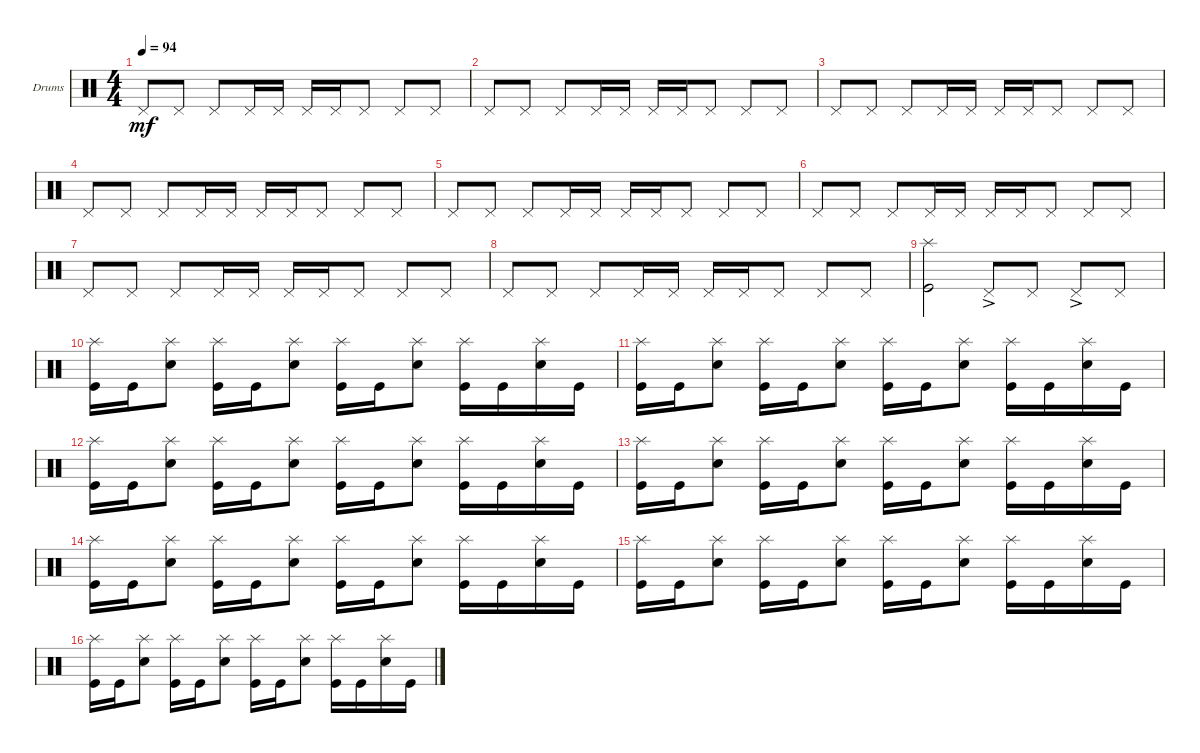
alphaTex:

\defaultSystemsLayout 4
\bracketExtendMode groupsimilarinstruments
\firstSystemTrackNameOrientation horizontal
\otherSystemsTrackNameOrientation horizontal
\track ("Тоха" "Drums") {instrument percussion}
\staff {score}
\articulation defaults
\ts (4 4)
\tempo 94
\clef neutral
\scale
0.474178
\ks c "Pedal Hi-Hat (hit)".8{dy mf} "Pedal Hi-Hat (hit)".8 "Pedal Hi-Hat (hit)".8 "Pedal Hi-Hat (hit)".16 "Pedal Hi-Hat (hit)".16 "Pedal Hi-Hat (hit)".16 "Pedal Hi-Hat (hit)".16 "Pedal Hi-Hat (hit)".8 "Pedal Hi-Hat (hit)".8 "Pedal Hi-Hat (hit)".8
|
\scale
0.262911 "Pedal Hi-Hat (hit)".8 "Pedal Hi-Hat (hit)".8 "Pedal Hi-Hat (hit)".8 "Pedal Hi-Hat (hit)".16 "Pedal Hi-Hat (hit)".16 "Pedal Hi-Hat (hit)".16 "Pedal Hi-Hat (hit)".16 "Pedal Hi-Hat (hit)".8 "Pedal Hi-Hat (hit)".8 "Pedal Hi-Hat (hit)".8 |
\scale
0.262911 "Pedal Hi-Hat (hit)".8 "Pedal Hi-Hat (hit)".8 "Pedal Hi-Hat (hit)".8 "Pedal Hi-Hat (hit)".16 "Pedal Hi-Hat (hit)".16 "Pedal Hi-Hat (hit)".16 "Pedal Hi-Hat (hit)".16 "Pedal Hi-Hat (hit)".8 "Pedal Hi-Hat (hit)".8 "Pedal Hi-Hat (hit)".8 |
\scale
0.333333 "Pedal Hi-Hat (hit)".8 "Pedal Hi-Hat (hit)".8 "Pedal Hi-Hat (hit)".8 "Pedal Hi-Hat (hit)".16 "Pedal Hi-Hat (hit)".16 "Pedal Hi-Hat (hit)".16 "Pedal Hi-Hat (hit)".16 "Pedal Hi-Hat (hit)".8 "Pedal Hi-Hat (hit)".8 "Pedal Hi-Hat (hit)".8 |
\scale
0.333333 "Pedal Hi-Hat (hit)".8 "Pedal Hi-Hat (hit)".8 "Pedal Hi-Hat (hit)".8 "Pedal Hi-Hat (hit)".16 "Pedal Hi-Hat (hit)".16 "Pedal Hi-Hat (hit)".16 "Pedal Hi-Hat (hit)".16 "Pedal Hi-Hat (hit)".8 "Pedal Hi-Hat (hit)".8 "Pedal Hi-Hat (hit)".8 |
\scale
0.333333 "Pedal Hi-Hat (hit)".8 "Pedal Hi-Hat (hit)".8 "Pedal Hi-Hat (hit)".8 "Pedal Hi-Hat (hit)".16 "Pedal Hi-Hat (hit)".16 "Pedal Hi-Hat (hit)".16 "Pedal Hi-Hat (hit)".16 "Pedal Hi-Hat (hit)".8 "Pedal Hi-Hat (hit)".8 "Pedal Hi-Hat (hit)".8 |
\scale
0.333333 "Pedal Hi-Hat (hit)".8 "Pedal Hi-Hat (hit)".8 "Pedal Hi-Hat (hit)".8 "Pedal Hi-Hat (hit)".16 "Pedal Hi-Hat (hit)".16 "Pedal Hi-Hat (hit)".16 "Pedal Hi-Hat (hit)".16 "Pedal Hi-Hat (hit)".8 "Pedal Hi-Hat (hit)".8 "Pedal Hi-Hat (hit)".8 |
\scale
0.333333 "Pedal Hi-Hat (hit)".8 "Pedal Hi-Hat (hit)".8 "Pedal Hi-Hat (hit)".8 "Pedal Hi-Hat (hit)".16 "Pedal Hi-Hat (hit)".16 "Pedal Hi-Hat (hit)".16 "Pedal Hi-Hat (hit)".16 "Pedal Hi-Hat (hit)".8 "Pedal Hi-Hat (hit)".8 "Pedal Hi-Hat (hit)".8 |
\scale
0.333333 ("Kick (hit)" "Splash (hit)").2 "Pedal Hi-Hat (hit)"{ac}.8 "Pedal Hi-Hat (hit)".8 "Pedal Hi-Hat (hit)"{ac}.8 "Pedal Hi-Hat (hit)".8 |
\scale
0.333333 ("Kick (hit)" "Splash (hit)").16 "Kick (hit)".16 ("Snare (hit) 2" "Splash (hit)").8 ("Kick (hit)" "Splash (hit)").16 "Kick (hit)".16 ("Snare (hit) 2" "Splash (hit)").8 ("Kick (hit)" "Splash (hit)").16 "Kick (hit)".16 ("Snare (hit) 2" "Splash (hit)").8 ("Kick (hit)" "Splash (hit)").16 "Kick (hit)".16 ("Snare (hit) 2" "Splash (hit)").16 "Kick (hit)".16 |
\scale
0.333333 ("Kick (hit)" "Splash (hit)").16 "Kick (hit)".16 ("Snare (hit) 2" "Splash (hit)").8 ("Kick (hit)" "Splash (hit)").16 "Kick (hit)".16 ("Snare (hit) 2" "Splash (hit)").8 ("Kick (hit)" "Splash (hit)").16 "Kick (hit)".16 ("Snare (hit) 2" "Splash (hit)").8 ("Kick (hit)" "Splash (hit)").16 "Kick (hit)".16 ("Snare (hit) 2" "Splash (hit)").16 "Kick (hit)".16 |
\scale
0.333333 ("Kick (hit)" "Splash (hit)").16 "Kick (hit)".16 ("Snare (hit) 2" "Splash (hit)").8 ("Kick (hit)" "Splash (hit)").16 "Kick (hit)".16 ("Snare (hit) 2" "Splash (hit)").8 ("Kick (hit)" "Splash (hit)").16 "Kick (hit)".16 ("Snare (hit) 2" "Splash (hit)").8 ("Kick (hit)" "Splash (hit)").16 "Kick (hit)".16 ("Snare (hit) 2" "Splash (hit)").16 "Kick (hit)".16 |
\scale
0.333333 ("Kick (hit)" "Splash (hit)").16 "Kick (hit)".16 ("Snare (hit) 2" "Splash (hit)").8 ("Kick (hit)" "Splash (hit)").16 "Kick (hit)".16 ("Snare (hit) 2" "Splash (hit)").8 ("Kick (hit)" "Splash (hit)").16 "Kick (hit)".16 ("Snare (hit) 2" "Splash (hit)").8 ("Kick (hit)" "Splash (hit)").16 "Kick (hit)".16 ("Snare (hit) 2" "Splash (hit)").16 "Kick (hit)".16 |
\scale
0.333333 ("Kick (hit)" "Splash (hit)").16 "Kick (hit)".16 ("Snare (hit) 2" "Splash (hit)").8 ("Kick (hit)" "Splash (hit)").16 "Kick (hit)".16 ("Snare (hit) 2" "Splash (hit)").8 ("Kick (hit)" "Splash (hit)").16 "Kick (hit)".16 ("Snare (hit) 2" "Splash (hit)").8 ("Kick (hit)" "Splash (hit)").16 "Kick (hit)".16 ("Snare (hit) 2" "Splash (hit)").16 "Kick (hit)".16 |
\scale
0.333333 ("Kick (hit)" "Splash (hit)").16 "Kick (hit)".16 ("Snare (hit) 2" "Splash (hit)").8 ("Kick (hit)" "Splash (hit)").16 "Kick (hit)".16 ("Snare (hit) 2" "Splash (hit)").8 ("Kick (hit)" "Splash (hit)").16 "Kick (hit)".16 ("Snare (hit) 2" "Splash (hit)").8 ("Kick (hit)" "Splash (hit)").16 "Kick (hit)".16 ("Snare (hit) 2" "Splash (hit)").16 "Kick (hit)".16 |
\scale
0.333333 ("Kick (hit)" "Splash (hit)").16 "Kick (hit)".16 ("Snare (hit) 2" "Splash (hit)").8 ("Kick (hit)" "Splash (hit)").16 "Kick (hit)".16 ("Snare (hit) 2" "Splash (hit)").8 ("Kick (hit)" "Splash (hit)").16 "Kick (hit)".16 ("Snare (hit) 2" "Splash (hit)").8 ("Kick (hit)" "Splash (hit)").16 "Kick (hit)".16 ("Snare (hit) 2" "Splash (hit)").16 "Kick (hit)".16
